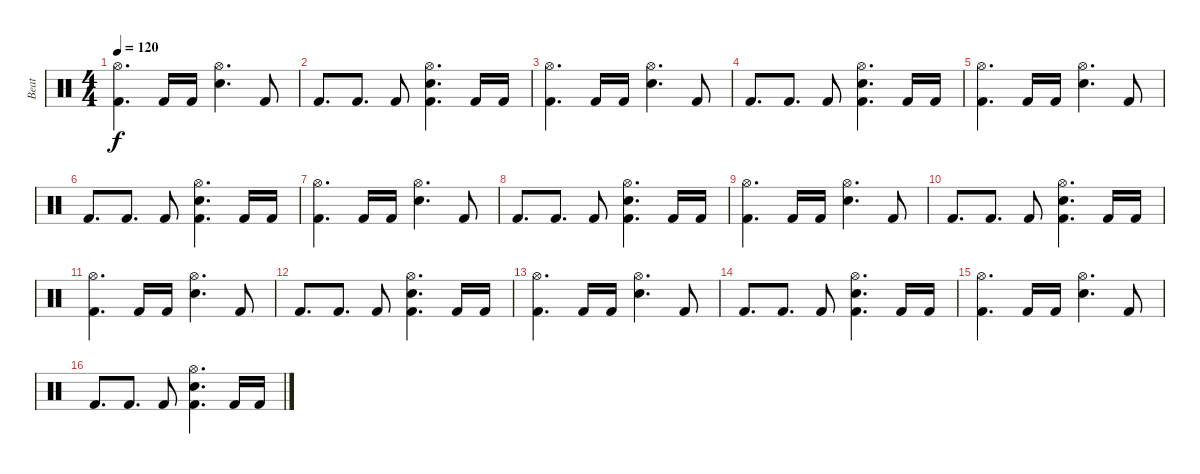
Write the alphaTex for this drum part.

\track ("Beat" "Beat") {instrument percussion}
\staff {score}
\articulation defaults
\ts (4 4)
\tempo 120
\clef neutral
\ks c
("Hi-Hat (open)" "Kick (hit) 2").4{d dy f} "Kick (hit) 2".16 "Kick (hit) 2".16 ("Hi-Hat (open)" "Snare (hit) 2").4{d} "Kick (hit) 2".8 |
"Kick (hit) 2".8{d} "Kick (hit) 2".8{d} "Kick (hit) 2".8 ("Hi-Hat (open)" "Kick (hit) 2" "Snare (hit) 2").4{d} "Kick (hit) 2".16 "Kick (hit) 2".16 |
("Hi-Hat (open)" "Kick (hit) 2").4{d} "Kick (hit) 2".16 "Kick (hit) 2".16 ("Hi-Hat (open)" "Snare (hit) 2").4{d} "Kick (hit) 2".8 |
"Kick (hit) 2".8{d} "Kick (hit) 2".8{d} "Kick (hit) 2".8 ("Hi-Hat (open)" "Kick (hit) 2" "Snare (hit) 2").4{d} "Kick (hit) 2".16 "Kick (hit) 2".16 |
("Hi-Hat (open)" "Kick (hit) 2").4{d} "Kick (hit) 2".16 "Kick (hit) 2".16 ("Hi-Hat (open)" "Snare (hit) 2").4{d} "Kick (hit) 2".8 |
"Kick (hit) 2".8{d} "Kick (hit) 2".8{d} "Kick (hit) 2".8 ("Hi-Hat (open)" "Kick (hit) 2" "Snare (hit) 2").4{d} "Kick (hit) 2".16 "Kick (hit) 2".16 |
("Hi-Hat (open)" "Kick (hit) 2").4{d} "Kick (hit) 2".16 "Kick (hit) 2".16 ("Hi-Hat (open)" "Snare (hit) 2").4{d} "Kick (hit) 2".8 |
"Kick (hit) 2".8{d} "Kick (hit) 2".8{d} "Kick (hit) 2".8 ("Hi-Hat (open)" "Kick (hit) 2" "Snare (hit) 2").4{d} "Kick (hit) 2".16 "Kick (hit) 2".16 |
("Hi-Hat (open)" "Kick (hit) 2").4{d} "Kick (hit) 2".16 "Kick (hit) 2".16 ("Hi-Hat (open)" "Snare (hit) 2").4{d} "Kick (hit) 2".8 |
"Kick (hit) 2".8{d} "Kick (hit) 2".8{d} "Kick (hit) 2".8 ("Hi-Hat (open)" "Kick (hit) 2" "Snare (hit) 2").4{d} "Kick (hit) 2".16 "Kick (hit) 2".16 |
("Hi-Hat (open)" "Kick (hit) 2").4{d} "Kick (hit) 2".16 "Kick (hit) 2".16 ("Hi-Hat (open)" "Snare (hit) 2").4{d} "Kick (hit) 2".8 |
"Kick (hit) 2".8{d} "Kick (hit) 2".8{d} "Kick (hit) 2".8 ("Hi-Hat (open)" "Kick (hit) 2" "Snare (hit) 2").4{d} "Kick (hit) 2".16 "Kick (hit) 2".16 |
("Hi-Hat (open)" "Kick (hit) 2").4{d} "Kick (hit) 2".16 "Kick (hit) 2".16 ("Hi-Hat (open)" "Snare (hit) 2").4{d} "Kick (hit) 2".8 |
"Kick (hit) 2".8{d} "Kick (hit) 2".8{d} "Kick (hit) 2".8 ("Hi-Hat (open)" "Kick (hit) 2" "Snare (hit) 2").4{d} "Kick (hit) 2".16 "Kick (hit) 2".16 |
("Hi-Hat (open)" "Kick (hit) 2").4{d} "Kick (hit) 2".16 "Kick (hit) 2".16 ("Hi-Hat (open)" "Snare (hit) 2").4{d} "Kick (hit) 2".8 |
"Kick (hit) 2".8{d} "Kick (hit) 2".8{d} "Kick (hit) 2".8 ("Hi-Hat (open)" "Kick (hit) 2" "Snare (hit) 2").4{d} "Kick (hit) 2".16 "Kick (hit) 2".16
